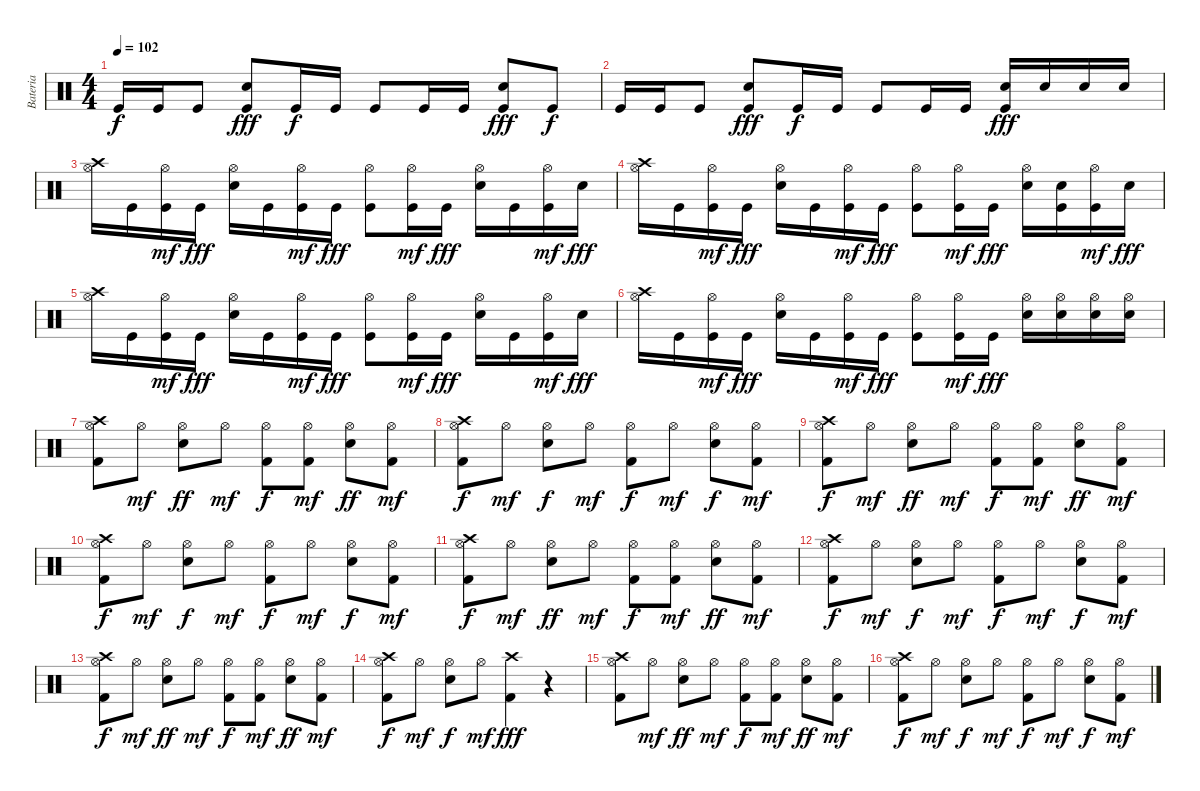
\track ("Bateria" "Bateria") {instrument percussion}
\staff {score}
\articulation defaults
\ts (4 4)
\tempo 102
\clef neutral
\ks c "Kick (hit)".16{dy f} "Kick (hit)".16 "Kick (hit)".8
("Snare (hit) 2" "Kick (hit)").8{dy fff} "Kick (hit)".16{dy f} "Kick (hit)".16 "Kick (hit)".8 "Kick (hit)".16 "Kick (hit)".16 ("Snare (hit) 2" "Kick (hit)").8{dy fff} "Kick (hit)".8{dy f} |
"Kick (hit)".16 "Kick (hit)".16 "Kick (hit)".8 ("Snare (hit) 2" "Kick (hit)").8{dy fff} "Kick (hit)".16{dy f} "Kick (hit)".16 "Kick (hit)".8 "Kick (hit)".16 "Kick (hit)".16 ("Snare (hit) 2" "Kick (hit)").16{dy fff} "Snare (hit) 2".16 "Snare (hit) 2".16 "Snare (hit) 2".16 |
("Crash high (hit)" "Hi-Hat (open)").16 "Kick (hit)".16 ("Kick (hit)" "Hi-Hat (open)").16{dy mf} "Kick (hit)".16{dy fff} ("Snare (hit) 2" "Hi-Hat (open)").16 "Kick (hit)".16 ("Kick (hit)" "Hi-Hat (open)").16{dy mf} "Kick (hit)".16{dy fff} ("Kick (hit)" "Hi-Hat (open)").8 ("Kick (hit)" "Hi-Hat (open)").16{dy mf} "Kick (hit)".16{dy fff} ("Snare (hit) 2" "Hi-Hat (open)").16 "Kick (hit)".16 ("Kick (hit)" "Hi-Hat (open)").16{dy mf} "Snare (hit) 2".16{dy fff} |
("Crash high (hit)" "Hi-Hat (open)").16 "Kick (hit)".16 ("Kick (hit)" "Hi-Hat (open)").16{dy mf} "Kick (hit)".16{dy fff} ("Snare (hit) 2" "Hi-Hat (open)").16 "Kick (hit)".16 ("Kick (hit)" "Hi-Hat (open)").16{dy mf} "Kick (hit)".16{dy fff} ("Kick (hit)" "Hi-Hat (open)").8 ("Kick (hit)" "Hi-Hat (open)").16{dy mf} "Kick (hit)".16{dy fff} ("Snare (hit) 2" "Hi-Hat (open)").16 ("Kick (hit)" "Snare (hit) 2").16 ("Kick (hit)" "Hi-Hat (open)").16{dy mf} "Snare (hit) 2".16{dy fff} |
("Crash high (hit)" "Hi-Hat (open)").16 "Kick (hit)".16 ("Kick (hit)" "Hi-Hat (open)").16{dy mf} "Kick (hit)".16{dy fff} ("Snare (hit) 2" "Hi-Hat (open)").16 "Kick (hit)".16 ("Kick (hit)" "Hi-Hat (open)").16{dy mf} "Kick (hit)".16{dy fff} ("Kick (hit)" "Hi-Hat (open)").8 ("Kick (hit)" "Hi-Hat (open)").16{dy mf} "Kick (hit)".16{dy fff} ("Snare (hit) 2" "Hi-Hat (open)").16 "Kick (hit)".16 ("Kick (hit)" "Hi-Hat (open)").16{dy mf} "Snare (hit) 2".16{dy fff} |
("Crash high (hit)" "Hi-Hat (open)").16 "Kick (hit)".16 ("Kick (hit)" "Hi-Hat (open)").16{dy mf} "Kick (hit)".16{dy fff} ("Snare (hit) 2" "Hi-Hat (open)").16 "Kick (hit)".16 ("Kick (hit)" "Hi-Hat (open)").16{dy mf} "Kick (hit)".16{dy fff} ("Kick (hit)" "Hi-Hat (open)").8 ("Kick (hit)" "Hi-Hat (open)").16{dy mf} "Kick (hit)".16{dy fff} ("Snare (hit) 2" "Hi-Hat (open)").16 ("Snare (hit) 2" "Hi-Hat (open)").16 ("Snare (hit) 2" "Hi-Hat (open)").16 ("Snare (hit) 2" "Hi-Hat (open)").16 |
("Crash high (hit)" "Kick (hit) 2" "Hi-Hat (open)").8 "Hi-Hat (open)".8{dy mf} ("Electric Snare (hit)" "Hi-Hat (open)").8{dy ff} "Hi-Hat (open)".8{dy mf} ("Kick (hit) 2" "Hi-Hat (open)").8{dy f} ("Kick (hit) 2" "Hi-Hat (open)").8{dy mf} ("Electric Snare (hit)" "Hi-Hat (open)").8{dy ff} ("Kick (hit) 2" "Hi-Hat (open)").8{dy mf} |
("Crash high (hit)" "Kick (hit) 2" "Hi-Hat (open)").8{dy f} "Hi-Hat (open)".8{dy mf} ("Electric Snare (hit)" "Hi-Hat (open)").8{dy f} "Hi-Hat (open)".8{dy mf} ("Kick (hit) 2" "Hi-Hat (open)").8{dy f} "Hi-Hat (open)".8{dy mf} ("Electric Snare (hit)" "Hi-Hat (open)").8{dy f} ("Kick (hit) 2" "Hi-Hat (open)").8{dy mf} |
("Crash high (hit)" "Kick (hit) 2" "Hi-Hat (open)").8{dy f} "Hi-Hat (open)".8{dy mf} ("Electric Snare (hit)" "Hi-Hat (open)").8{dy ff} "Hi-Hat (open)".8{dy mf} ("Kick (hit) 2" "Hi-Hat (open)").8{dy f} ("Kick (hit) 2" "Hi-Hat (open)").8{dy mf} ("Electric Snare (hit)" "Hi-Hat (open)").8{dy ff} ("Kick (hit) 2" "Hi-Hat (open)").8{dy mf} |
("Crash high (hit)" "Kick (hit) 2" "Hi-Hat (open)").8{dy f} "Hi-Hat (open)".8{dy mf} ("Electric Snare (hit)" "Hi-Hat (open)").8{dy f} "Hi-Hat (open)".8{dy mf} ("Kick (hit) 2" "Hi-Hat (open)").8{dy f} "Hi-Hat (open)".8{dy mf} ("Electric Snare (hit)" "Hi-Hat (open)").8{dy f} ("Kick (hit) 2" "Hi-Hat (open)").8{dy mf} |
("Crash high (hit)" "Kick (hit) 2" "Hi-Hat (open)").8{dy f} "Hi-Hat (open)".8{dy mf} ("Electric Snare (hit)" "Hi-Hat (open)").8{dy ff} "Hi-Hat (open)".8{dy mf} ("Kick (hit) 2" "Hi-Hat (open)").8{dy f} ("Kick (hit) 2" "Hi-Hat (open)").8{dy mf} ("Electric Snare (hit)" "Hi-Hat (open)").8{dy ff} ("Kick (hit) 2" "Hi-Hat (open)").8{dy mf} |
("Crash high (hit)" "Kick (hit) 2" "Hi-Hat (open)").8{dy f} "Hi-Hat (open)".8{dy mf} ("Electric Snare (hit)" "Hi-Hat (open)").8{dy f} "Hi-Hat (open)".8{dy mf} ("Kick (hit) 2" "Hi-Hat (open)").8{dy f} "Hi-Hat (open)".8{dy mf} ("Electric Snare (hit)" "Hi-Hat (open)").8{dy f} ("Kick (hit) 2" "Hi-Hat (open)").8{dy mf} |
("Crash high (hit)" "Kick (hit) 2" "Hi-Hat (open)").8{dy f} "Hi-Hat (open)".8{dy mf} ("Electric Snare (hit)" "Hi-Hat (open)").8{dy ff} "Hi-Hat (open)".8{dy mf} ("Kick (hit) 2" "Hi-Hat (open)").8{dy f} ("Kick (hit) 2" "Hi-Hat (open)").8{dy mf} ("Electric Snare (hit)" "Hi-Hat (open)").8{dy ff} ("Kick (hit) 2" "Hi-Hat (open)").8{dy mf} |
("Crash high (hit)" "Kick (hit) 2" "Hi-Hat (open)").8{dy f} "Hi-Hat (open)".8{dy mf} ("Electric Snare (hit)" "Hi-Hat (open)").8{dy f} "Hi-Hat (open)".8{dy mf} ("Crash high (hit)" "Kick (hit) 2").4{dy fff} r.4 |
("Crash high (hit)" "Kick (hit) 2" "Hi-Hat (open)").8 "Hi-Hat (open)".8{dy mf} ("Electric Snare (hit)" "Hi-Hat (open)").8{dy ff} "Hi-Hat (open)".8{dy mf} ("Kick (hit) 2" "Hi-Hat (open)").8{dy f} ("Kick (hit) 2" "Hi-Hat (open)").8{dy mf} ("Electric Snare (hit)" "Hi-Hat (open)").8{dy ff} ("Kick (hit) 2" "Hi-Hat (open)").8{dy mf} |
("Crash high (hit)" "Kick (hit) 2" "Hi-Hat (open)").8{dy f} "Hi-Hat (open)".8{dy mf} ("Electric Snare (hit)" "Hi-Hat (open)").8{dy f} "Hi-Hat (open)".8{dy mf} ("Kick (hit) 2" "Hi-Hat (open)").8{dy f} "Hi-Hat (open)".8{dy mf} ("Electric Snare (hit)" "Hi-Hat (open)").8{dy f} ("Kick (hit) 2" "Hi-Hat (open)").8{dy mf}
